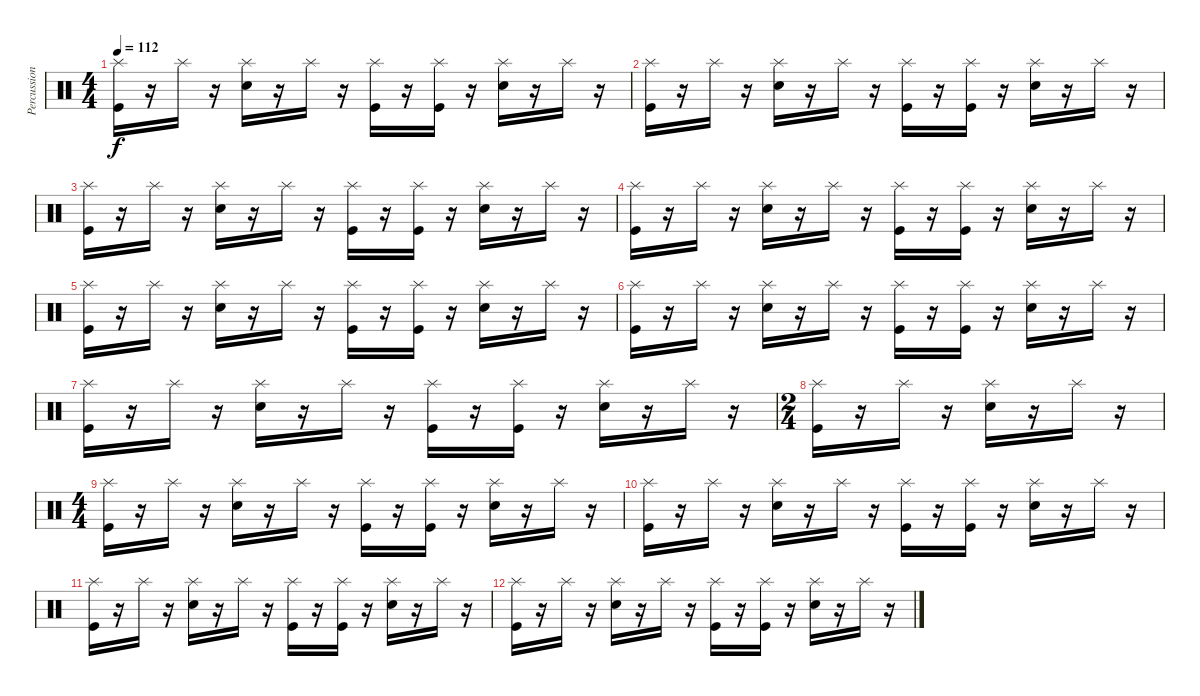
\track ("Percussions" "Percussion") {instrument percussion}
\staff {score}
\articulation defaults
\ts (4 4)
\tempo 112
\clef neutral
\ks c
("Splash (hit)" "Kick (hit)").16{dy f} r.16 "Splash (hit)".16 r.16 ("Splash (hit)" "Electric Snare (hit)").16 r.16 "Splash (hit)".16 r.16 ("Splash (hit)" "Kick (hit)").16 r.16 ("Splash (hit)" "Kick (hit)").16 r.16 ("Splash (hit)" "Electric Snare (hit)").16 r.16 "Splash (hit)".16 r.16 |
("Splash (hit)" "Kick (hit)").16 r.16 "Splash (hit)".16 r.16 ("Splash (hit)" "Electric Snare (hit)").16 r.16 "Splash (hit)".16 r.16 ("Splash (hit)" "Kick (hit)").16 r.16 ("Splash (hit)" "Kick (hit)").16 r.16 ("Splash (hit)" "Electric Snare (hit)").16 r.16 "Splash (hit)".16 r.16 |
("Splash (hit)" "Kick (hit)").16 r.16 "Splash (hit)".16 r.16 ("Splash (hit)" "Electric Snare (hit)").16 r.16 "Splash (hit)".16 r.16 ("Splash (hit)" "Kick (hit)").16 r.16 ("Splash (hit)" "Kick (hit)").16 r.16 ("Splash (hit)" "Electric Snare (hit)").16 r.16 "Splash (hit)".16 r.16 |
("Splash (hit)" "Kick (hit)").16 r.16 "Splash (hit)".16 r.16 ("Splash (hit)" "Electric Snare (hit)").16 r.16 "Splash (hit)".16 r.16 ("Splash (hit)" "Kick (hit)").16 r.16 ("Splash (hit)" "Kick (hit)").16 r.16 ("Splash (hit)" "Electric Snare (hit)").16 r.16 "Splash (hit)".16 r.16 |
("Splash (hit)" "Kick (hit)").16 r.16 "Splash (hit)".16 r.16 ("Splash (hit)" "Electric Snare (hit)").16 r.16 "Splash (hit)".16 r.16 ("Splash (hit)" "Kick (hit)").16 r.16 ("Splash (hit)" "Kick (hit)").16 r.16 ("Splash (hit)" "Electric Snare (hit)").16 r.16 "Splash (hit)".16 r.16 |
("Splash (hit)" "Kick (hit)").16 r.16 "Splash (hit)".16 r.16 ("Splash (hit)" "Electric Snare (hit)").16 r.16 "Splash (hit)".16 r.16 ("Splash (hit)" "Kick (hit)").16 r.16 ("Splash (hit)" "Kick (hit)").16 r.16 ("Splash (hit)" "Electric Snare (hit)").16 r.16 "Splash (hit)".16 r.16 |
("Splash (hit)" "Kick (hit)").16 r.16 "Splash (hit)".16 r.16 ("Splash (hit)" "Electric Snare (hit)").16 r.16 "Splash (hit)".16 r.16 ("Splash (hit)" "Kick (hit)").16 r.16 ("Splash (hit)" "Kick (hit)").16 r.16 ("Splash (hit)" "Electric Snare (hit)").16 r.16 "Splash (hit)".16 r.16 |
\ts (2 4)
("Splash (hit)" "Kick (hit)").16 r.16 "Splash (hit)".16 r.16 ("Splash (hit)" "Electric Snare (hit)").16 r.16 "Splash (hit)".16 r.16 |
\ts (4 4)
("Splash (hit)" "Kick (hit)").16 r.16 "Splash (hit)".16 r.16 ("Splash (hit)" "Electric Snare (hit)").16 r.16 "Splash (hit)".16 r.16 ("Splash (hit)" "Kick (hit)").16 r.16 ("Splash (hit)" "Kick (hit)").16 r.16 ("Splash (hit)" "Electric Snare (hit)").16 r.16 "Splash (hit)".16 r.16 |
("Splash (hit)" "Kick (hit)").16 r.16 "Splash (hit)".16 r.16 ("Splash (hit)" "Electric Snare (hit)").16 r.16 "Splash (hit)".16 r.16 ("Splash (hit)" "Kick (hit)").16 r.16 ("Splash (hit)" "Kick (hit)").16 r.16 ("Splash (hit)" "Electric Snare (hit)").16 r.16 "Splash (hit)".16 r.16 |
("Splash (hit)" "Kick (hit)").16 r.16 "Splash (hit)".16 r.16 ("Splash (hit)" "Electric Snare (hit)").16 r.16 "Splash (hit)".16 r.16 ("Splash (hit)" "Kick (hit)").16 r.16 ("Splash (hit)" "Kick (hit)").16 r.16 ("Splash (hit)" "Electric Snare (hit)").16 r.16 "Splash (hit)".16 r.16 |
("Splash (hit)" "Kick (hit)").16 r.16 "Splash (hit)".16 r.16 ("Splash (hit)" "Electric Snare (hit)").16 r.16 "Splash (hit)".16 r.16 ("Splash (hit)" "Kick (hit)").16 r.16 ("Splash (hit)" "Kick (hit)").16 r.16 ("Splash (hit)" "Electric Snare (hit)").16 r.16 "Splash (hit)".16 r.16
